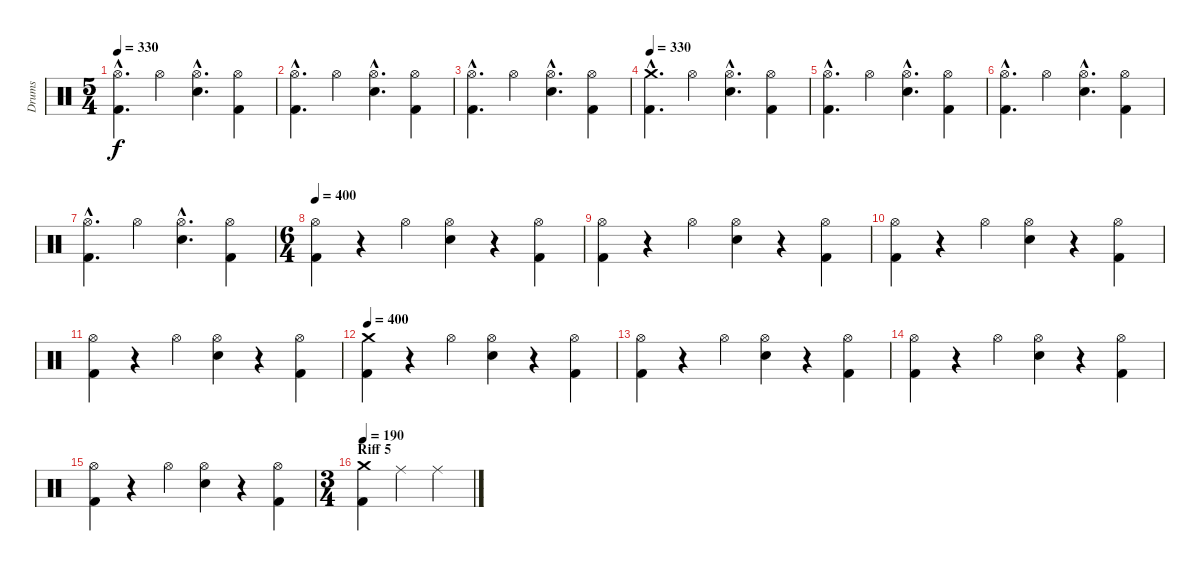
\track ("Drums" "Drums") {instrument percussion}
\staff {score}
\articulation defaults
\ts (5 4)
\tempo 330
\clef neutral
\ks c
("Hi-Hat (open)"{hac} "Kick (hit) 2"{hac}).4{d dy f} "Hi-Hat (open)".4 ("Hi-Hat (open)"{hac} "Electric Snare (hit)"{hac}).4{d} ("Hi-Hat (open)" "Kick (hit) 2").4 |
("Hi-Hat (open)"{hac} "Kick (hit) 2"{hac}).4{d} "Hi-Hat (open)".4 ("Hi-Hat (open)"{hac} "Electric Snare (hit)"{hac}).4{d} ("Hi-Hat (open)" "Kick (hit) 2").4 |
("Hi-Hat (open)"{hac} "Kick (hit) 2"{hac}).4{d} "Hi-Hat (open)".4 ("Hi-Hat (open)"{hac} "Electric Snare (hit)"{hac}).4{d} ("Hi-Hat (open)" "Kick (hit) 2").4 |
\tempo 330
("Crash medium (hit)"{hac} "Kick (hit) 2"{hac}).4{d} "Hi-Hat (open)".4 ("Hi-Hat (open)"{hac} "Electric Snare (hit)"{hac}).4{d} ("Hi-Hat (open)" "Kick (hit) 2").4 |
("Hi-Hat (open)"{hac} "Kick (hit) 2"{hac}).4{d} "Hi-Hat (open)".4 ("Hi-Hat (open)"{hac} "Electric Snare (hit)"{hac}).4{d} ("Hi-Hat (open)" "Kick (hit) 2").4 |
("Hi-Hat (open)"{hac} "Kick (hit) 2"{hac}).4{d} "Hi-Hat (open)".4 ("Hi-Hat (open)"{hac} "Electric Snare (hit)"{hac}).4{d} ("Hi-Hat (open)" "Kick (hit) 2").4 |
("Hi-Hat (open)"{hac} "Kick (hit) 2"{hac}).4{d} "Hi-Hat (open)".4 ("Hi-Hat (open)"{hac} "Electric Snare (hit)"{hac}).4{d} ("Hi-Hat (open)" "Kick (hit) 2").4 |
\ts (6 4)
\tempo 400
("Hi-Hat (open)" "Kick (hit) 2").4 r.4 "Hi-Hat (open)".4 ("Hi-Hat (open)" "Electric Snare (hit)").4 r.4 ("Hi-Hat (open)" "Kick (hit) 2").4 |
("Hi-Hat (open)" "Kick (hit) 2").4 r.4 "Hi-Hat (open)".4 ("Hi-Hat (open)" "Electric Snare (hit)").4 r.4 ("Hi-Hat (open)" "Kick (hit) 2").4 |
("Hi-Hat (open)" "Kick (hit) 2").4 r.4 "Hi-Hat (open)".4 ("Hi-Hat (open)" "Electric Snare (hit)").4 r.4 ("Hi-Hat (open)" "Kick (hit) 2").4 |
("Hi-Hat (open)" "Kick (hit) 2").4 r.4 "Hi-Hat (open)".4 ("Hi-Hat (open)" "Electric Snare (hit)").4 r.4 ("Hi-Hat (open)" "Kick (hit) 2").4 |
\tempo 400
("Crash medium (hit)" "Kick (hit) 2").4 r.4 "Hi-Hat (open)".4 ("Hi-Hat (open)" "Electric Snare (hit)").4 r.4 ("Hi-Hat (open)" "Kick (hit) 2").4 |
("Hi-Hat (open)" "Kick (hit) 2").4 r.4 "Hi-Hat (open)".4 ("Hi-Hat (open)" "Electric Snare (hit)").4 r.4 ("Hi-Hat (open)" "Kick (hit) 2").4 |
("Hi-Hat (open)" "Kick (hit) 2").4 r.4 "Hi-Hat (open)".4 ("Hi-Hat (open)" "Electric Snare (hit)").4 r.4 ("Hi-Hat (open)" "Kick (hit) 2").4 |
("Hi-Hat (open)" "Kick (hit) 2").4 r.4 "Hi-Hat (open)".4 ("Hi-Hat (open)" "Electric Snare (hit)").4 r.4 ("Hi-Hat (open)" "Kick (hit) 2").4 |
\ts (3 4)
\section ("" "Riff 5")
\tempo 190
("Crash medium (hit)" "Kick (hit) 2").4 "Ride (middle)".4 "Ride (middle)".4
